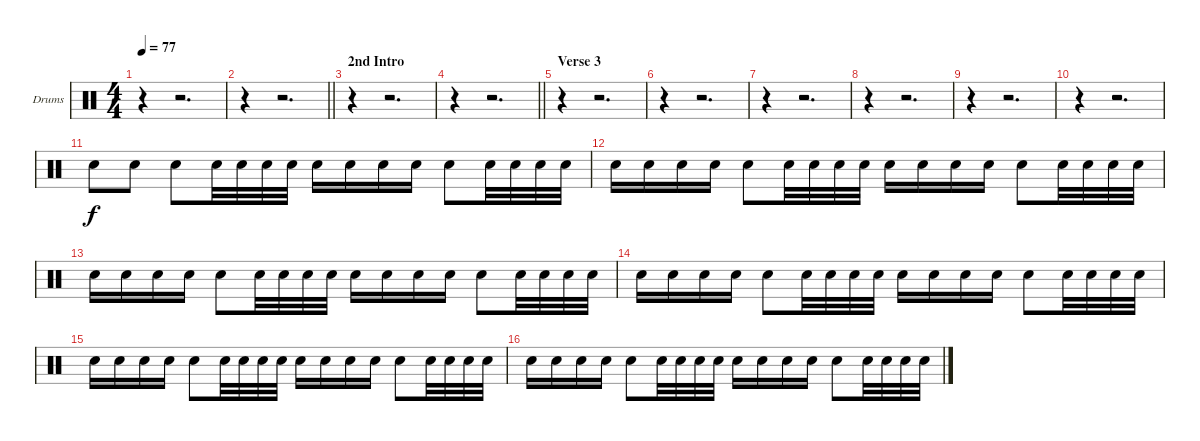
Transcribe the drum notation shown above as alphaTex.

\bracketExtendMode groupsimilarinstruments
\firstSystemTrackNameOrientation horizontal
\otherSystemsTrackNameOrientation horizontal
\track ("Drumkit" "Drums") {instrument percussion}
\staff {score}
\articulation defaults
\ts (4 4)
\tempo 77
\clef neutral
\ks c
r.4{dy f} r.2{d} |
\barLineRight lightlight
r.4 r.2{d} |
\section ("" "2nd Intro")
r.4 r.2{d} |
\barLineRight lightlight
r.4 r.2{d} |
\section ("" "Verse 3")
r.4 r.2{d} |
r.4 r.2{d} |
r.4 r.2{d} |
r.4 r.2{d} |
r.4 r.2{d} |
r.4 r.2{d} |
"Snare (hit) 2".8 "Snare (hit) 2".8 "Snare (hit) 2".8 "Snare (hit) 2".32 "Snare (hit) 2".32 "Snare (hit) 2".32 "Snare (hit) 2".32 "Snare (hit) 2".16 "Snare (hit) 2".16 "Snare (hit) 2".16 "Snare (hit) 2".16 "Snare (hit) 2".8 "Snare (hit) 2".32 "Snare (hit) 2".32 "Snare (hit) 2".32 "Snare (hit) 2".32 |
"Snare (hit) 2".16 "Snare (hit) 2".16 "Snare (hit) 2".16 "Snare (hit) 2".16 "Snare (hit) 2".8 "Snare (hit) 2".32 "Snare (hit) 2".32 "Snare (hit) 2".32 "Snare (hit) 2".32 "Snare (hit) 2".16 "Snare (hit) 2".16 "Snare (hit) 2".16 "Snare (hit) 2".16 "Snare (hit) 2".8 "Snare (hit) 2".32 "Snare (hit) 2".32 "Snare (hit) 2".32 "Snare (hit) 2".32 |
"Snare (hit) 2".16 "Snare (hit) 2".16 "Snare (hit) 2".16 "Snare (hit) 2".16 "Snare (hit) 2".8 "Snare (hit) 2".32 "Snare (hit) 2".32 "Snare (hit) 2".32 "Snare (hit) 2".32 "Snare (hit) 2".16 "Snare (hit) 2".16 "Snare (hit) 2".16 "Snare (hit) 2".16 "Snare (hit) 2".8 "Snare (hit) 2".32 "Snare (hit) 2".32 "Snare (hit) 2".32 "Snare (hit) 2".32 |
"Snare (hit) 2".16 "Snare (hit) 2".16 "Snare (hit) 2".16 "Snare (hit) 2".16 "Snare (hit) 2".8 "Snare (hit) 2".32 "Snare (hit) 2".32 "Snare (hit) 2".32 "Snare (hit) 2".32 "Snare (hit) 2".16 "Snare (hit) 2".16 "Snare (hit) 2".16 "Snare (hit) 2".16 "Snare (hit) 2".8 "Snare (hit) 2".32 "Snare (hit) 2".32 "Snare (hit) 2".32 "Snare (hit) 2".32 |
"Snare (hit) 2".16 "Snare (hit) 2".16 "Snare (hit) 2".16 "Snare (hit) 2".16 "Snare (hit) 2".8 "Snare (hit) 2".32 "Snare (hit) 2".32 "Snare (hit) 2".32 "Snare (hit) 2".32 "Snare (hit) 2".16 "Snare (hit) 2".16 "Snare (hit) 2".16 "Snare (hit) 2".16 "Snare (hit) 2".8 "Snare (hit) 2".32 "Snare (hit) 2".32 "Snare (hit) 2".32 "Snare (hit) 2".32 |
"Snare (hit) 2".16 "Snare (hit) 2".16 "Snare (hit) 2".16 "Snare (hit) 2".16 "Snare (hit) 2".8 "Snare (hit) 2".32 "Snare (hit) 2".32 "Snare (hit) 2".32 "Snare (hit) 2".32 "Snare (hit) 2".16 "Snare (hit) 2".16 "Snare (hit) 2".16 "Snare (hit) 2".16 "Snare (hit) 2".8 "Snare (hit) 2".32 "Snare (hit) 2".32 "Snare (hit) 2".32 "Snare (hit) 2".32
